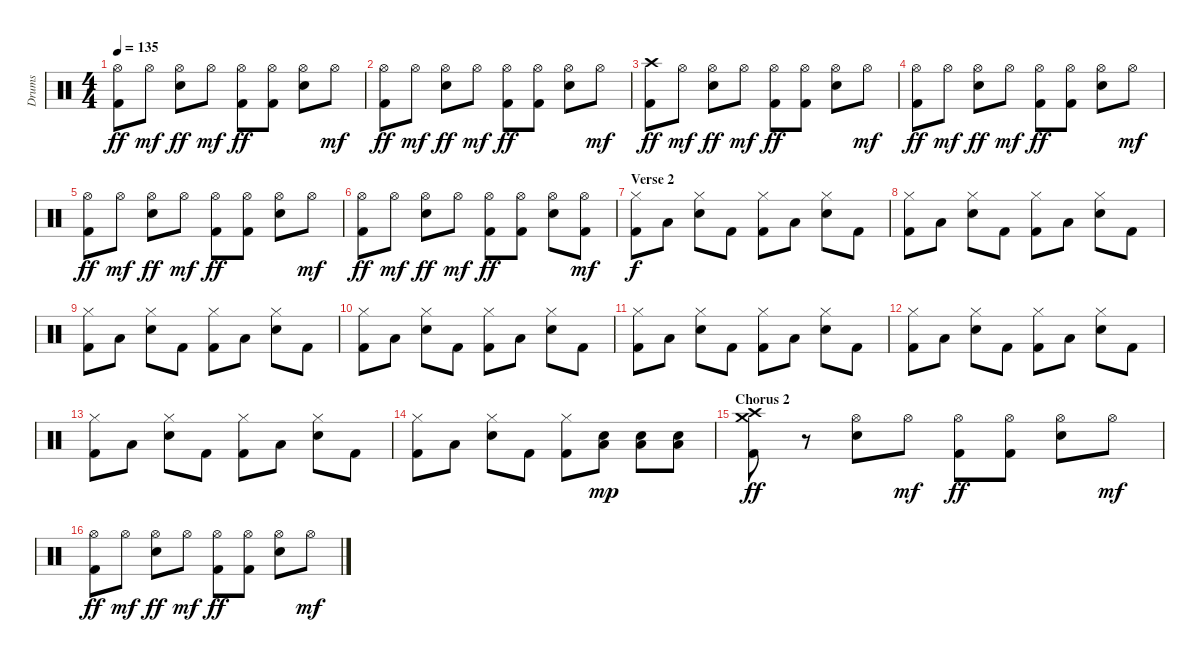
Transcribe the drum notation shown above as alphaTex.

\track ("Drums" "Drums") {instrument percussion}
\staff {score}
\articulation defaults
\ts (4 4)
\tempo 135
\clef neutral
\ks c
("Hi-Hat (open)" "Kick (hit) 2").8{dy ff} "Hi-Hat (open)".8{dy mf} ("Hi-Hat (open)" "Snare (hit) 2").8{dy ff} "Hi-Hat (open)".8{dy mf} ("Hi-Hat (open)" "Kick (hit) 2").8{dy ff} ("Hi-Hat (open)" "Kick (hit) 2").8 ("Hi-Hat (open)" "Snare (hit) 2").8 "Hi-Hat (open)".8{dy mf} |
("Hi-Hat (open)" "Kick (hit) 2").8{dy ff} "Hi-Hat (open)".8{dy mf} ("Hi-Hat (open)" "Snare (hit) 2").8{dy ff} "Hi-Hat (open)".8{dy mf} ("Hi-Hat (open)" "Kick (hit) 2").8{dy ff} ("Hi-Hat (open)" "Kick (hit) 2").8 ("Hi-Hat (open)" "Snare (hit) 2").8 "Hi-Hat (open)".8{dy mf} |
("Crash high (hit)" "Kick (hit) 2").8{dy ff} "Hi-Hat (open)".8{dy mf} ("Hi-Hat (open)" "Snare (hit) 2").8{dy ff} "Hi-Hat (open)".8{dy mf} ("Hi-Hat (open)" "Kick (hit) 2").8{dy ff} ("Hi-Hat (open)" "Kick (hit) 2").8 ("Hi-Hat (open)" "Snare (hit) 2").8 "Hi-Hat (open)".8{dy mf} |
("Hi-Hat (open)" "Kick (hit) 2").8{dy ff} "Hi-Hat (open)".8{dy mf} ("Hi-Hat (open)" "Snare (hit) 2").8{dy ff} "Hi-Hat (open)".8{dy mf} ("Hi-Hat (open)" "Kick (hit) 2").8{dy ff} ("Hi-Hat (open)" "Kick (hit) 2").8 ("Hi-Hat (open)" "Snare (hit) 2").8 "Hi-Hat (open)".8{dy mf} |
("Hi-Hat (open)" "Kick (hit) 2").8{dy ff} "Hi-Hat (open)".8{dy mf} ("Hi-Hat (open)" "Snare (hit) 2").8{dy ff} "Hi-Hat (open)".8{dy mf} ("Hi-Hat (open)" "Kick (hit) 2").8{dy ff} ("Hi-Hat (open)" "Kick (hit) 2").8 ("Hi-Hat (open)" "Snare (hit) 2").8 "Hi-Hat (open)".8{dy mf} |
("Hi-Hat (open)" "Kick (hit) 2").8{dy ff} "Hi-Hat (open)".8{dy mf} ("Hi-Hat (open)" "Snare (hit) 2").8{dy ff} "Hi-Hat (open)".8{dy mf} ("Hi-Hat (open)" "Kick (hit) 2").8{dy ff} ("Hi-Hat (open)" "Kick (hit) 2").8 ("Hi-Hat (open)" "Snare (hit) 2").8 ("Hi-Hat (open)" "Kick (hit) 2").8{dy mf} |
\section ("" "Verse 2")
("Hi-Hat (closed)" "Kick (hit) 2").8{dy f} "Low Floor Tom (hit)".8 ("Hi-Hat (closed)" "Snare (hit) 2").8 "Kick (hit) 2".8 ("Hi-Hat (closed)" "Kick (hit) 2").8 "Low Floor Tom (hit)".8 ("Hi-Hat (closed)" "Snare (hit) 2").8 "Kick (hit) 2".8 |
("Hi-Hat (closed)" "Kick (hit) 2").8 "Low Floor Tom (hit)".8 ("Hi-Hat (closed)" "Snare (hit) 2").8 "Kick (hit) 2".8 ("Hi-Hat (closed)" "Kick (hit) 2").8 "Low Floor Tom (hit)".8 ("Hi-Hat (closed)" "Snare (hit) 2").8 "Kick (hit) 2".8 |
("Hi-Hat (closed)" "Kick (hit) 2").8 "Low Floor Tom (hit)".8 ("Hi-Hat (closed)" "Snare (hit) 2").8 "Kick (hit) 2".8 ("Hi-Hat (closed)" "Kick (hit) 2").8 "Low Floor Tom (hit)".8 ("Hi-Hat (closed)" "Snare (hit) 2").8 "Kick (hit) 2".8 |
("Hi-Hat (closed)" "Kick (hit) 2").8 "Low Floor Tom (hit)".8 ("Hi-Hat (closed)" "Snare (hit) 2").8 "Kick (hit) 2".8 ("Hi-Hat (closed)" "Kick (hit) 2").8 "Low Floor Tom (hit)".8 ("Hi-Hat (closed)" "Snare (hit) 2").8 "Kick (hit) 2".8 |
("Hi-Hat (closed)" "Kick (hit) 2").8 "Low Floor Tom (hit)".8 ("Hi-Hat (closed)" "Snare (hit) 2").8 "Kick (hit) 2".8 ("Hi-Hat (closed)" "Kick (hit) 2").8 "Low Floor Tom (hit)".8 ("Hi-Hat (closed)" "Snare (hit) 2").8 "Kick (hit) 2".8 |
("Hi-Hat (closed)" "Kick (hit) 2").8 "Low Floor Tom (hit)".8 ("Hi-Hat (closed)" "Snare (hit) 2").8 "Kick (hit) 2".8 ("Hi-Hat (closed)" "Kick (hit) 2").8 "Low Floor Tom (hit)".8 ("Hi-Hat (closed)" "Snare (hit) 2").8 "Kick (hit) 2".8 |
("Hi-Hat (closed)" "Kick (hit) 2").8 "Low Floor Tom (hit)".8 ("Hi-Hat (closed)" "Snare (hit) 2").8 "Kick (hit) 2".8 ("Hi-Hat (closed)" "Kick (hit) 2").8 "Low Floor Tom (hit)".8 ("Hi-Hat (closed)" "Snare (hit) 2").8 "Kick (hit) 2".8 |
("Hi-Hat (closed)" "Kick (hit) 2").8 "Low Floor Tom (hit)".8 ("Hi-Hat (closed)" "Snare (hit) 2").8 "Kick (hit) 2".8 ("Hi-Hat (closed)" "Kick (hit) 2").8 ("Low Floor Tom (hit)" "Snare (hit) 2").8{dy mp} ("Low Floor Tom (hit)" "Snare (hit) 2").8 ("Low Floor Tom (hit)" "Snare (hit) 2").8 |
\section ("" "Chorus 2")
("Crash high (hit)" "Crash medium (hit)" "Kick (hit) 2").8{dy ff} r.8 ("Hi-Hat (open)" "Snare (hit) 2").8 "Hi-Hat (open)".8{dy mf} ("Hi-Hat (open)" "Kick (hit) 2").8{dy ff} ("Hi-Hat (open)" "Kick (hit) 2").8 ("Hi-Hat (open)" "Snare (hit) 2").8 "Hi-Hat (open)".8{dy mf} |
("Hi-Hat (open)" "Kick (hit) 2").8{dy ff} "Hi-Hat (open)".8{dy mf} ("Hi-Hat (open)" "Snare (hit) 2").8{dy ff} "Hi-Hat (open)".8{dy mf} ("Hi-Hat (open)" "Kick (hit) 2").8{dy ff} ("Hi-Hat (open)" "Kick (hit) 2").8 ("Hi-Hat (open)" "Snare (hit) 2").8 "Hi-Hat (open)".8{dy mf}
